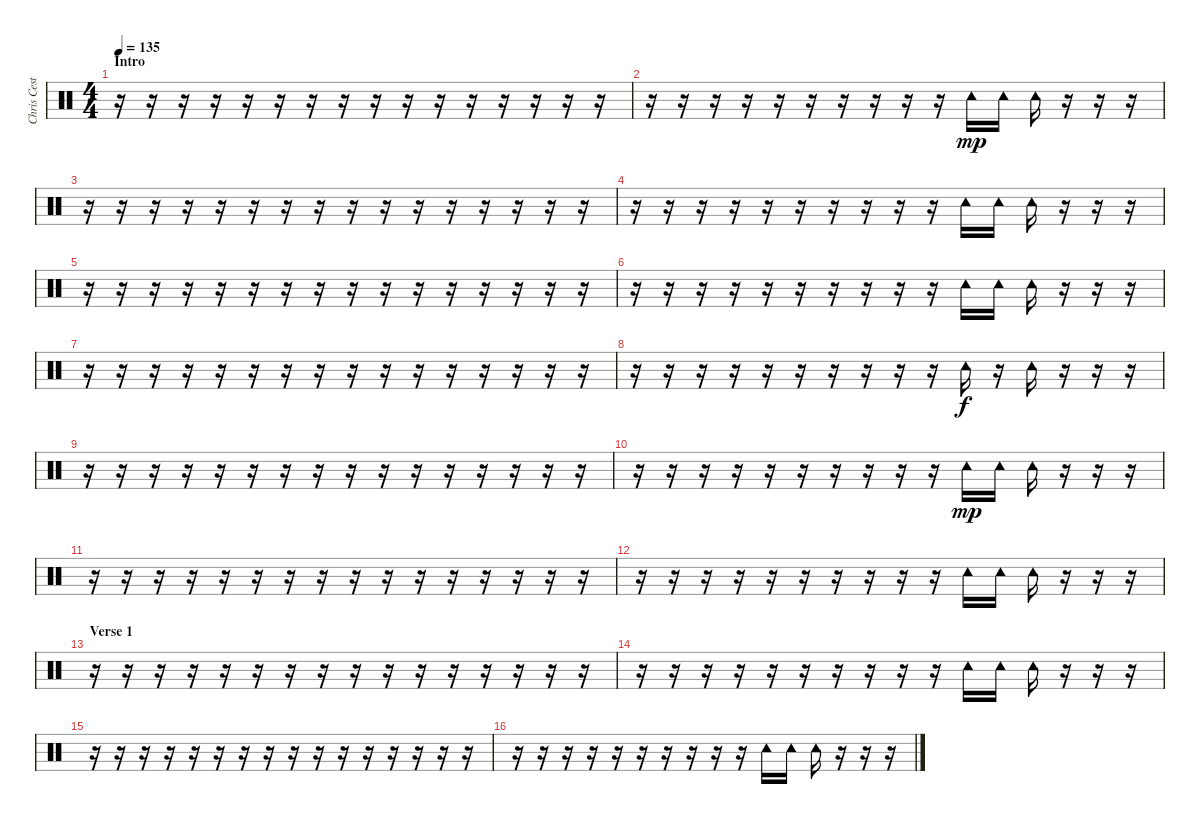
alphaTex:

\track ("Chris Cester - Tambourine" "Chris Cest") {instrument percussion}
\staff {score}
\articulation defaults
\ts (4 4)
\section ("" "Intro")
\tempo 135
\clef neutral
\ks c
r.16{dy mp} r.16 r.16 r.16 r.16 r.16 r.16 r.16 r.16 r.16 r.16 r.16 r.16 r.16 r.16 r.16 |
r.16 r.16 r.16 r.16 r.16 r.16 r.16 r.16 r.16 r.16 "Tambourine (hit)".16 "Tambourine (hit)".16 "Tambourine (hit)".16 r.16 r.16 r.16 |
r.16 r.16 r.16 r.16 r.16 r.16 r.16 r.16 r.16 r.16 r.16 r.16 r.16 r.16 r.16 r.16 |
r.16 r.16 r.16 r.16 r.16 r.16 r.16 r.16 r.16 r.16 "Tambourine (hit)".16 "Tambourine (hit)".16 "Tambourine (hit)".16 r.16 r.16 r.16 |
r.16 r.16 r.16 r.16 r.16 r.16 r.16 r.16 r.16 r.16 r.16 r.16 r.16 r.16 r.16 r.16 |
r.16 r.16 r.16 r.16 r.16 r.16 r.16 r.16 r.16 r.16 "Tambourine (hit)".16 "Tambourine (hit)".16 "Tambourine (hit)".16 r.16 r.16 r.16 |
r.16 r.16 r.16 r.16 r.16 r.16 r.16 r.16 r.16 r.16 r.16 r.16 r.16 r.16 r.16 r.16 |
r.16 r.16 r.16 r.16 r.16 r.16 r.16 r.16 r.16 r.16 "Tambourine (hit)".16{dy f} r.16 "Tambourine (hit)".16 r.16 r.16 r.16 |
r.16 r.16 r.16 r.16 r.16 r.16 r.16 r.16 r.16 r.16 r.16 r.16 r.16 r.16 r.16 r.16 |
r.16 r.16 r.16 r.16 r.16 r.16 r.16 r.16 r.16 r.16 "Tambourine (hit)".16{dy mp} "Tambourine (hit)".16 "Tambourine (hit)".16 r.16 r.16 r.16 |
r.16 r.16 r.16 r.16 r.16 r.16 r.16 r.16 r.16 r.16 r.16 r.16 r.16 r.16 r.16 r.16 |
r.16 r.16 r.16 r.16 r.16 r.16 r.16 r.16 r.16 r.16 "Tambourine (hit)".16 "Tambourine (hit)".16 "Tambourine (hit)".16 r.16 r.16 r.16 |
\section ("" "Verse 1")
r.16 r.16 r.16 r.16 r.16 r.16 r.16 r.16 r.16 r.16 r.16 r.16 r.16 r.16 r.16 r.16 |
r.16 r.16 r.16 r.16 r.16 r.16 r.16 r.16 r.16 r.16 "Tambourine (hit)".16 "Tambourine (hit)".16 "Tambourine (hit)".16 r.16 r.16 r.16 |
r.16 r.16 r.16 r.16 r.16 r.16 r.16 r.16 r.16 r.16 r.16 r.16 r.16 r.16 r.16 r.16 |
r.16 r.16 r.16 r.16 r.16 r.16 r.16 r.16 r.16 r.16 "Tambourine (hit)".16 "Tambourine (hit)".16 "Tambourine (hit)".16 r.16 r.16 r.16
